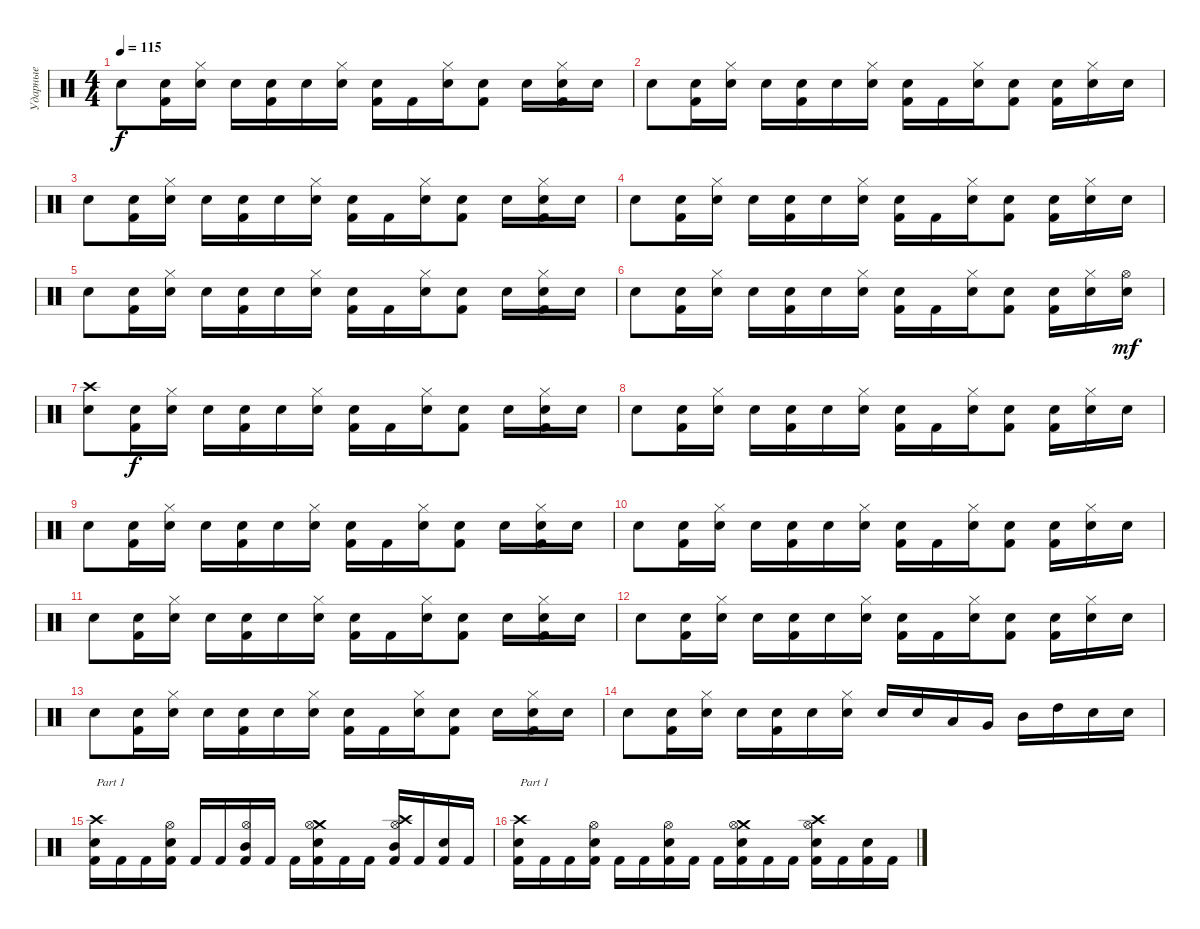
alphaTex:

\track ("Ударные" "Ударные") {instrument percussion}
\staff {score}
\articulation defaults
\ts (4 4)
\tempo 115
\clef neutral
\ks c "Electric Snare (hit)".8{dy f}
("Snare (hit) 2" "Kick (hit) 2").16 ("Hi-Hat (closed)" "Electric Snare (hit)").16 "Electric Snare (hit)".16 ("Snare (hit) 2" "Kick (hit) 2").16 "Electric Snare (hit)".16 ("Hi-Hat (closed)" "Electric Snare (hit)").16 ("Snare (hit) 2" "Kick (hit) 2").16 "Kick (hit) 2".16 ("Hi-Hat (closed)" "Electric Snare (hit)").16 ("Snare (hit) 2" "Kick (hit) 2").8 "Snare (hit) 2".16 ("Hi-Hat (closed)" "Snare (hit) 2" "Kick (hit) 2").16 "Electric Snare (hit)".16 |
"Electric Snare (hit)".8 ("Snare (hit) 2" "Kick (hit) 2").16 ("Hi-Hat (closed)" "Electric Snare (hit)").16 "Electric Snare (hit)".16 ("Snare (hit) 2" "Kick (hit) 2").16 "Electric Snare (hit)".16 ("Hi-Hat (closed)" "Electric Snare (hit)").16 ("Snare (hit) 2" "Kick (hit) 2").16 "Kick (hit) 2".16 ("Hi-Hat (closed)" "Electric Snare (hit)").16 ("Snare (hit) 2" "Kick (hit) 2").8 ("Electric Snare (hit)" "Kick (hit) 2").16 ("Hi-Hat (closed)" "Snare (hit) 2").16 "Electric Snare (hit)".16 |
"Electric Snare (hit)".8 ("Snare (hit) 2" "Kick (hit) 2").16 ("Hi-Hat (closed)" "Electric Snare (hit)").16 "Electric Snare (hit)".16 ("Snare (hit) 2" "Kick (hit) 2").16 "Electric Snare (hit)".16 ("Hi-Hat (closed)" "Electric Snare (hit)").16 ("Snare (hit) 2" "Kick (hit) 2").16 "Kick (hit) 2".16 ("Hi-Hat (closed)" "Electric Snare (hit)").16 ("Snare (hit) 2" "Kick (hit) 2").8 "Snare (hit) 2".16 ("Hi-Hat (closed)" "Snare (hit) 2" "Kick (hit) 2").16 "Electric Snare (hit)".16 |
"Electric Snare (hit)".8 ("Snare (hit) 2" "Kick (hit) 2").16 ("Hi-Hat (closed)" "Electric Snare (hit)").16 "Electric Snare (hit)".16 ("Snare (hit) 2" "Kick (hit) 2").16 "Electric Snare (hit)".16 ("Hi-Hat (closed)" "Electric Snare (hit)").16 ("Snare (hit) 2" "Kick (hit) 2").16 "Kick (hit) 2".16 ("Hi-Hat (closed)" "Electric Snare (hit)").16 ("Snare (hit) 2" "Kick (hit) 2").8 ("Electric Snare (hit)" "Kick (hit) 2").16 ("Hi-Hat (closed)" "Snare (hit) 2").16 "Electric Snare (hit)".16 |
"Electric Snare (hit)".8 ("Snare (hit) 2" "Kick (hit) 2").16 ("Hi-Hat (closed)" "Electric Snare (hit)").16 "Electric Snare (hit)".16 ("Snare (hit) 2" "Kick (hit) 2").16 "Electric Snare (hit)".16 ("Hi-Hat (closed)" "Electric Snare (hit)").16 ("Snare (hit) 2" "Kick (hit) 2").16 "Kick (hit) 2".16 ("Hi-Hat (closed)" "Electric Snare (hit)").16 ("Snare (hit) 2" "Kick (hit) 2").8 "Snare (hit) 2".16 ("Hi-Hat (closed)" "Snare (hit) 2" "Kick (hit) 2").16 "Electric Snare (hit)".16 |
"Electric Snare (hit)".8 ("Snare (hit) 2" "Kick (hit) 2").16 ("Hi-Hat (closed)" "Electric Snare (hit)").16 "Electric Snare (hit)".16 ("Snare (hit) 2" "Kick (hit) 2").16 "Electric Snare (hit)".16 ("Hi-Hat (closed)" "Electric Snare (hit)").16 ("Snare (hit) 2" "Kick (hit) 2").16 "Kick (hit) 2".16 ("Hi-Hat (closed)" "Electric Snare (hit)").16 ("Snare (hit) 2" "Kick (hit) 2").8 ("Electric Snare (hit)" "Kick (hit) 2").16 ("Hi-Hat (closed)" "Snare (hit) 2").16 ("Hi-Hat (open)" "Electric Snare (hit)").16{dy mf} |
("Crash high (hit)" "Electric Snare (hit)").8 ("Snare (hit) 2" "Kick (hit) 2").16{dy f} ("Hi-Hat (closed)" "Electric Snare (hit)").16 "Electric Snare (hit)".16 ("Snare (hit) 2" "Kick (hit) 2").16 "Electric Snare (hit)".16 ("Hi-Hat (closed)" "Electric Snare (hit)").16 ("Snare (hit) 2" "Kick (hit) 2").16 "Kick (hit) 2".16 ("Hi-Hat (closed)" "Electric Snare (hit)").16 ("Snare (hit) 2" "Kick (hit) 2").8 "Snare (hit) 2".16 ("Hi-Hat (closed)" "Snare (hit) 2" "Kick (hit) 2").16 "Electric Snare (hit)".16 |
"Electric Snare (hit)".8 ("Snare (hit) 2" "Kick (hit) 2").16 ("Hi-Hat (closed)" "Electric Snare (hit)").16 "Electric Snare (hit)".16 ("Snare (hit) 2" "Kick (hit) 2").16 "Electric Snare (hit)".16 ("Hi-Hat (closed)" "Electric Snare (hit)").16 ("Snare (hit) 2" "Kick (hit) 2").16 "Kick (hit) 2".16 ("Hi-Hat (closed)" "Electric Snare (hit)").16 ("Snare (hit) 2" "Kick (hit) 2").8 ("Electric Snare (hit)" "Kick (hit) 2").16 ("Hi-Hat (closed)" "Snare (hit) 2").16 "Electric Snare (hit)".16 |
"Electric Snare (hit)".8 ("Snare (hit) 2" "Kick (hit) 2").16 ("Hi-Hat (closed)" "Electric Snare (hit)").16 "Electric Snare (hit)".16 ("Snare (hit) 2" "Kick (hit) 2").16 "Electric Snare (hit)".16 ("Hi-Hat (closed)" "Electric Snare (hit)").16 ("Snare (hit) 2" "Kick (hit) 2").16 "Kick (hit) 2".16 ("Hi-Hat (closed)" "Electric Snare (hit)").16 ("Snare (hit) 2" "Kick (hit) 2").8 "Snare (hit) 2".16 ("Hi-Hat (closed)" "Snare (hit) 2" "Kick (hit) 2").16 "Electric Snare (hit)".16 |
"Electric Snare (hit)".8 ("Snare (hit) 2" "Kick (hit) 2").16 ("Hi-Hat (closed)" "Electric Snare (hit)").16 "Electric Snare (hit)".16 ("Snare (hit) 2" "Kick (hit) 2").16 "Electric Snare (hit)".16 ("Hi-Hat (closed)" "Electric Snare (hit)").16 ("Snare (hit) 2" "Kick (hit) 2").16 "Kick (hit) 2".16 ("Hi-Hat (closed)" "Electric Snare (hit)").16 ("Snare (hit) 2" "Kick (hit) 2").8 ("Electric Snare (hit)" "Kick (hit) 2").16 ("Hi-Hat (closed)" "Snare (hit) 2").16 "Electric Snare (hit)".16 |
"Electric Snare (hit)".8 ("Snare (hit) 2" "Kick (hit) 2").16 ("Hi-Hat (closed)" "Electric Snare (hit)").16 "Electric Snare (hit)".16 ("Snare (hit) 2" "Kick (hit) 2").16 "Electric Snare (hit)".16 ("Hi-Hat (closed)" "Electric Snare (hit)").16 ("Snare (hit) 2" "Kick (hit) 2").16 "Kick (hit) 2".16 ("Hi-Hat (closed)" "Electric Snare (hit)").16 ("Snare (hit) 2" "Kick (hit) 2").8 "Snare (hit) 2".16 ("Hi-Hat (closed)" "Snare (hit) 2" "Kick (hit) 2").16 "Electric Snare (hit)".16 |
"Electric Snare (hit)".8 ("Snare (hit) 2" "Kick (hit) 2").16 ("Hi-Hat (closed)" "Electric Snare (hit)").16 "Electric Snare (hit)".16 ("Snare (hit) 2" "Kick (hit) 2").16 "Electric Snare (hit)".16 ("Hi-Hat (closed)" "Electric Snare (hit)").16 ("Snare (hit) 2" "Kick (hit) 2").16 "Kick (hit) 2".16 ("Hi-Hat (closed)" "Electric Snare (hit)").16 ("Snare (hit) 2" "Kick (hit) 2").8 ("Electric Snare (hit)" "Kick (hit) 2").16 ("Hi-Hat (closed)" "Snare (hit) 2").16 "Electric Snare (hit)".16 |
"Electric Snare (hit)".8 ("Snare (hit) 2" "Kick (hit) 2").16 ("Hi-Hat (closed)" "Electric Snare (hit)").16 "Electric Snare (hit)".16 ("Snare (hit) 2" "Kick (hit) 2").16 "Electric Snare (hit)".16 ("Hi-Hat (closed)" "Electric Snare (hit)").16 ("Snare (hit) 2" "Kick (hit) 2").16 "Kick (hit) 2".16 ("Hi-Hat (closed)" "Electric Snare (hit)").16 ("Snare (hit) 2" "Kick (hit) 2").8 "Snare (hit) 2".16 ("Hi-Hat (closed)" "Snare (hit) 2" "Kick (hit) 2").16 "Electric Snare (hit)".16 |
"Electric Snare (hit)".8 ("Snare (hit) 2" "Kick (hit) 2").16 ("Hi-Hat (closed)" "Electric Snare (hit)").16 "Electric Snare (hit)".16 ("Snare (hit) 2" "Kick (hit) 2").16 "Electric Snare (hit)".16 ("Hi-Hat (closed)" "Electric Snare (hit)").16 "Snare (hit) 2".16 "Electric Snare (hit)".16 "Low Floor Tom (hit)".16 "Very Low Tom (hit)".16 "Mid Tom (hit)".16 "High Tom (hit)".16 "Snare (hit) 2".16 "Electric Snare (hit)".16 |
("Crash high (hit)" "Snare (hit) 2" "Kick (hit) 2").16{txt "Part 1"} "Kick (hit) 2".16 "Kick (hit) 2".16 ("Hi-Hat (open)" "Electric Snare (hit)" "Kick (hit) 2").16 "Kick (hit) 2".16 "Kick (hit) 2".16 ("Hi-Hat (open)" "Mid Tom (hit)" "Kick (hit) 2").16 "Kick (hit) 2".16 "Kick (hit) 2".16 ("Crash medium (hit)" "Hi-Hat (open)" "Electric Snare (hit)" "Kick (hit) 2").16 "Kick (hit) 2".16 "Kick (hit) 2".16 ("Crash high (hit)" "Hi-Hat (open)" "Mid Tom (hit)" "Kick (hit) 2").16 "Kick (hit) 2".16 ("Snare (hit) 2" "Kick (hit) 2").16 "Kick (hit) 2".16 |
("Crash high (hit)" "Snare (hit) 2" "Kick (hit) 2").16{txt "Part 1"} "Kick (hit) 2".16 "Kick (hit) 2".16 ("Hi-Hat (open)" "Snare (hit) 2" "Kick (hit) 2").16 "Kick (hit) 2".16 "Kick (hit) 2".16 ("Hi-Hat (open)" "Snare (hit) 2" "Kick (hit) 2").16 "Kick (hit) 2".16 "Kick (hit) 2".16 ("Crash medium (hit)" "Hi-Hat (open)" "Snare (hit) 2" "Kick (hit) 2").16 "Kick (hit) 2".16 "Kick (hit) 2".16 ("Crash high (hit)" "Hi-Hat (open)" "Snare (hit) 2" "Kick (hit) 2").16 "Kick (hit) 2".16 ("Snare (hit) 2" "Kick (hit) 2").16 "Kick (hit) 2".16
